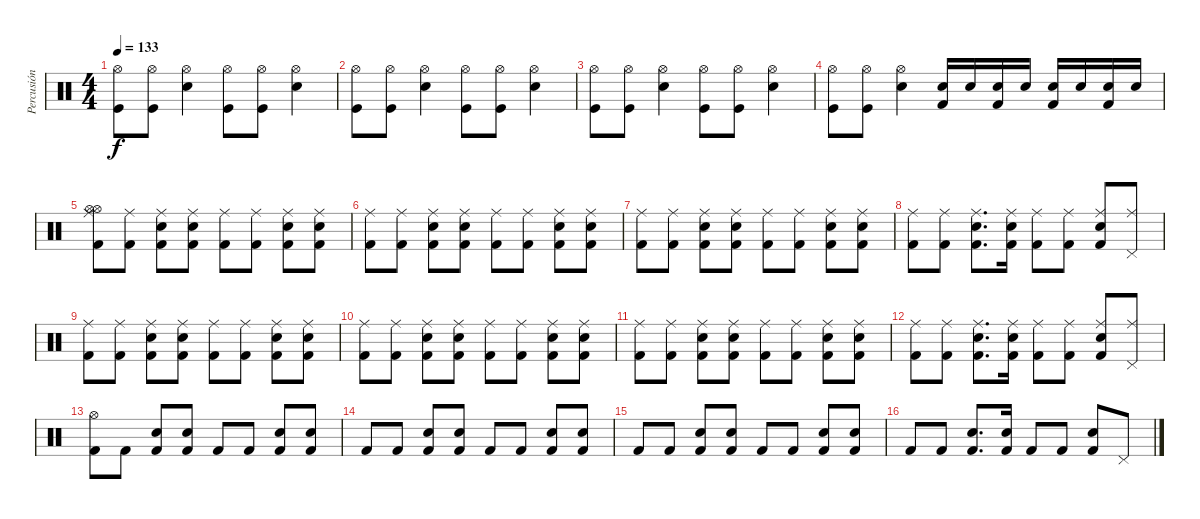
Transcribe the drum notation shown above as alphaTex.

\track ("Percusión" "Percusión") {instrument percussion}
\staff {score}
\articulation defaults
\ts (4 4)
\tempo 133
\clef neutral
\ks c
("Kick (hit)" "Hi-Hat (open)").8{dy f} ("Kick (hit)" "Hi-Hat (open)").8 ("Snare (hit) 2" "Hi-Hat (open)").4 ("Kick (hit)" "Hi-Hat (open)").8 ("Kick (hit)" "Hi-Hat (open)").8 ("Snare (hit) 2" "Hi-Hat (open)").4 |
("Kick (hit)" "Hi-Hat (open)").8 ("Kick (hit)" "Hi-Hat (open)").8 ("Snare (hit) 2" "Hi-Hat (open)").4 ("Kick (hit)" "Hi-Hat (open)").8 ("Kick (hit)" "Hi-Hat (open)").8 ("Snare (hit) 2" "Hi-Hat (open)").4 |
("Kick (hit)" "Hi-Hat (open)").8 ("Kick (hit)" "Hi-Hat (open)").8 ("Snare (hit) 2" "Hi-Hat (open)").4 ("Kick (hit)" "Hi-Hat (open)").8 ("Kick (hit)" "Hi-Hat (open)").8 ("Snare (hit) 2" "Hi-Hat (open)").4 |
("Kick (hit)" "Hi-Hat (open)").8 ("Kick (hit)" "Hi-Hat (open)").8 ("Snare (hit) 2" "Hi-Hat (open)").4 ("Snare (hit) 2" "Kick (hit) 2").16 "Snare (hit) 2".16 ("Snare (hit) 2" "Kick (hit) 2").16 "Snare (hit) 2".16 ("Snare (hit) 2" "Kick (hit) 2").16 "Snare (hit) 2".16 ("Snare (hit) 2" "Kick (hit) 2").16 "Snare (hit) 2".16 |
("Kick (hit) 2" "Ride (middle)" "Hi-Hat (open)" "Hi-Hat (open)").8 ("Kick (hit) 2" "Ride (middle)").8 ("Kick (hit) 2" "Snare (hit) 2" "Ride (middle)").8 ("Kick (hit) 2" "Snare (hit) 2" "Ride (middle)").8 ("Kick (hit) 2" "Ride (middle)").8 ("Kick (hit) 2" "Ride (middle)").8 ("Kick (hit) 2" "Snare (hit) 2" "Ride (middle)").8 ("Kick (hit) 2" "Snare (hit) 2" "Ride (middle)").8 |
("Kick (hit) 2" "Ride (middle)").8 ("Kick (hit) 2" "Ride (middle)").8 ("Kick (hit) 2" "Snare (hit) 2" "Ride (middle)").8 ("Kick (hit) 2" "Snare (hit) 2" "Ride (middle)").8 ("Kick (hit) 2" "Ride (middle)").8 ("Kick (hit) 2" "Ride (middle)").8 ("Kick (hit) 2" "Snare (hit) 2" "Ride (middle)").8 ("Kick (hit) 2" "Snare (hit) 2" "Ride (middle)").8 |
("Kick (hit) 2" "Ride (middle)").8 ("Kick (hit) 2" "Ride (middle)").8 ("Kick (hit) 2" "Snare (hit) 2" "Ride (middle)").8 ("Kick (hit) 2" "Snare (hit) 2" "Ride (middle)").8 ("Kick (hit) 2" "Ride (middle)").8 ("Kick (hit) 2" "Ride (middle)").8 ("Kick (hit) 2" "Snare (hit) 2" "Ride (middle)").8 ("Kick (hit) 2" "Snare (hit) 2" "Ride (middle)").8 |
("Kick (hit) 2" "Ride (middle)").8 ("Kick (hit) 2" "Ride (middle)").8 ("Kick (hit) 2" "Snare (hit) 2" "Ride (middle)").8{d} ("Kick (hit) 2" "Snare (hit) 2" "Ride (middle)").16 ("Kick (hit) 2" "Ride (middle)").8 ("Kick (hit) 2" "Ride (middle)").8 ("Kick (hit) 2" "Snare (hit) 2" "Ride (middle)").8 ("Pedal Hi-Hat (hit)" "Ride (middle)").8 |
("Kick (hit) 2" "Ride (middle)").8 ("Kick (hit) 2" "Ride (middle)").8 ("Kick (hit) 2" "Snare (hit) 2" "Ride (middle)").8 ("Kick (hit) 2" "Snare (hit) 2" "Ride (middle)").8 ("Kick (hit) 2" "Ride (middle)").8 ("Kick (hit) 2" "Ride (middle)").8 ("Kick (hit) 2" "Snare (hit) 2" "Ride (middle)").8 ("Kick (hit) 2" "Snare (hit) 2" "Ride (middle)").8 |
("Kick (hit) 2" "Ride (middle)").8 ("Kick (hit) 2" "Ride (middle)").8 ("Kick (hit) 2" "Snare (hit) 2" "Ride (middle)").8 ("Kick (hit) 2" "Snare (hit) 2" "Ride (middle)").8 ("Kick (hit) 2" "Ride (middle)").8 ("Kick (hit) 2" "Ride (middle)").8 ("Kick (hit) 2" "Snare (hit) 2" "Ride (middle)").8 ("Kick (hit) 2" "Snare (hit) 2" "Ride (middle)").8 |
("Kick (hit) 2" "Ride (middle)").8 ("Kick (hit) 2" "Ride (middle)").8 ("Kick (hit) 2" "Snare (hit) 2" "Ride (middle)").8 ("Kick (hit) 2" "Snare (hit) 2" "Ride (middle)").8 ("Kick (hit) 2" "Ride (middle)").8 ("Kick (hit) 2" "Ride (middle)").8 ("Kick (hit) 2" "Snare (hit) 2" "Ride (middle)").8 ("Kick (hit) 2" "Snare (hit) 2" "Ride (middle)").8 |
("Kick (hit) 2" "Ride (middle)").8 ("Kick (hit) 2" "Ride (middle)").8 ("Kick (hit) 2" "Snare (hit) 2" "Ride (middle)").8{d} ("Kick (hit) 2" "Snare (hit) 2" "Ride (middle)").16 ("Kick (hit) 2" "Ride (middle)").8 ("Kick (hit) 2" "Ride (middle)").8 ("Kick (hit) 2" "Snare (hit) 2" "Ride (middle)").8 ("Pedal Hi-Hat (hit)" "Ride (middle)").8 |
("Kick (hit) 2" "Hi-Hat (open)").8 "Kick (hit) 2".8 ("Kick (hit) 2" "Snare (hit) 2").8 ("Kick (hit) 2" "Snare (hit) 2").8 "Kick (hit) 2".8 "Kick (hit) 2".8 ("Kick (hit) 2" "Snare (hit) 2").8 ("Kick (hit) 2" "Snare (hit) 2").8 |
"Kick (hit) 2".8 "Kick (hit) 2".8 ("Kick (hit) 2" "Snare (hit) 2").8 ("Kick (hit) 2" "Snare (hit) 2").8 "Kick (hit) 2".8 "Kick (hit) 2".8 ("Kick (hit) 2" "Snare (hit) 2").8 ("Kick (hit) 2" "Snare (hit) 2").8 |
"Kick (hit) 2".8 "Kick (hit) 2".8 ("Kick (hit) 2" "Snare (hit) 2").8 ("Kick (hit) 2" "Snare (hit) 2").8 "Kick (hit) 2".8 "Kick (hit) 2".8 ("Kick (hit) 2" "Snare (hit) 2").8 ("Kick (hit) 2" "Snare (hit) 2").8 |
"Kick (hit) 2".8 "Kick (hit) 2".8 ("Kick (hit) 2" "Snare (hit) 2").8{d} ("Kick (hit) 2" "Snare (hit) 2").16 "Kick (hit) 2".8 "Kick (hit) 2".8 ("Kick (hit) 2" "Snare (hit) 2").8 "Pedal Hi-Hat (hit)".8
